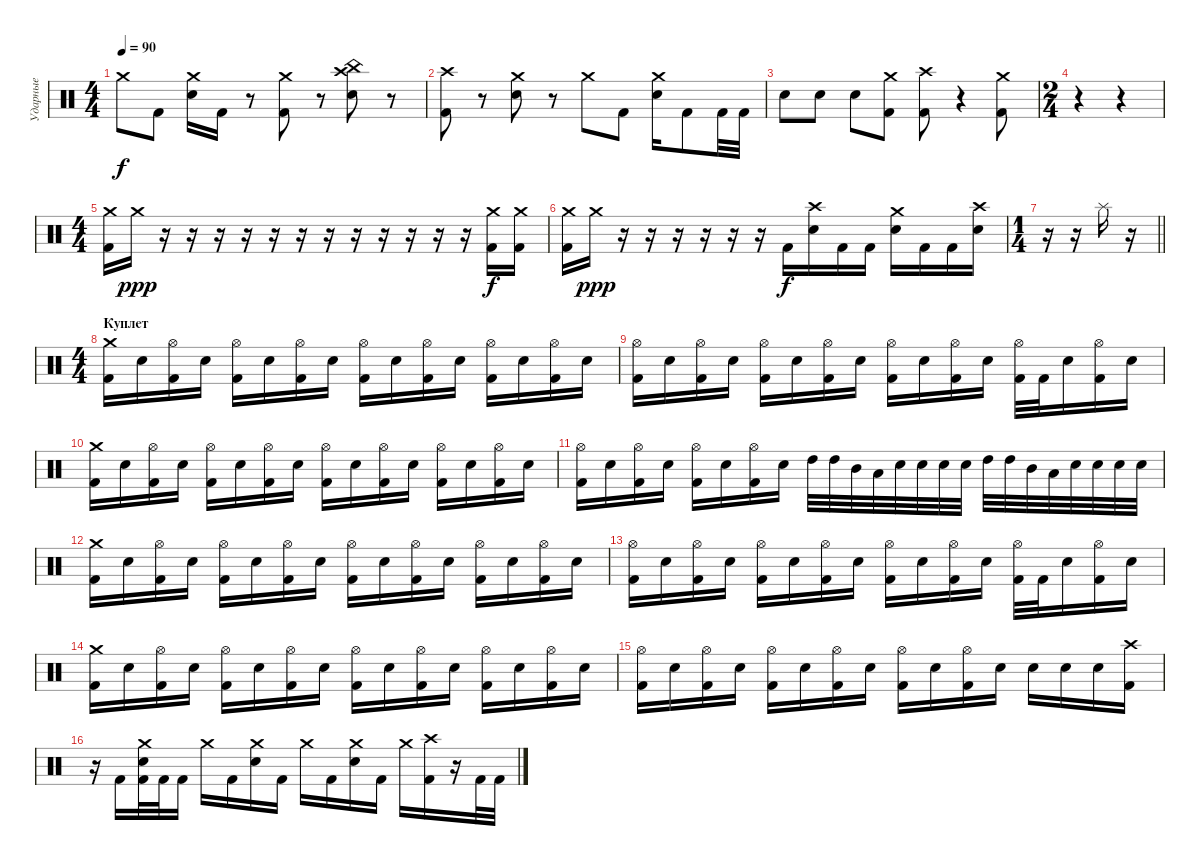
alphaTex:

\track ("Ударные" "Ударные") {instrument percussion}
\staff {score}
\articulation defaults
\ts (4 4)
\tempo 90
\clef neutral
\ks c "Crash medium (hit)".8{dy f} "Kick (hit) 2".8
("Crash medium (hit)" "Electric Snare (hit)").16 "Kick (hit) 2".16 r.8 ("Crash medium (hit)" "Kick (hit) 2").8 r.8 ("China (hit)" "Crash high (hit)" "Electric Snare (hit)").8 r.8 |
("Crash high (hit)" "Kick (hit) 2").8 r.8 ("Crash medium (hit)" "Electric Snare (hit)").8 r.8 "Crash medium (hit)".8 "Kick (hit) 2".8 ("Crash medium (hit)" "Electric Snare (hit)").16 "Kick (hit) 2".8 "Kick (hit) 2".32 "Kick (hit) 2".32 |
"Electric Snare (hit)".8 "Electric Snare (hit)".8 "Electric Snare (hit)".8 ("Crash medium (hit)" "Kick (hit) 2").8 ("Crash high (hit)" "Kick (hit) 2").8 r.4 ("Crash medium (hit)" "Kick (hit) 2").8 |
\ts (2 4)
r.4 r.4 |
\ts (4 4)
("Crash medium (hit)" "Kick (hit) 2").16 "Crash medium (hit)".16{dy ppp} r.16 r.16 r.16 r.16 r.16 r.16 r.16 r.16 r.16 r.16 r.16 r.16 ("Crash medium (hit)" "Kick (hit) 2").16{dy f} ("Crash medium (hit)" "Kick (hit) 2").16 |
("Crash medium (hit)" "Kick (hit) 2").16 "Crash medium (hit)".16{dy ppp} r.16 r.16 r.16 r.16 r.16 r.16 "Kick (hit) 2".16{dy f} ("Crash high (hit)" "Electric Snare (hit)").16 "Kick (hit) 2".16 "Kick (hit) 2".16 ("Crash medium (hit)" "Electric Snare (hit)").16 "Kick (hit) 2".16 "Kick (hit) 2".16 ("Crash high (hit)" "Electric Snare (hit)").16 |
\ts (1 4)
\barLineRight lightlight
r.16 r.16 "Splash (hit)".16 r.16 |
\ts (4 4)
\section ("" "Куплет")
("Crash medium (hit)" "Kick (hit) 2").16 "Electric Snare (hit)".16 ("Hi-Hat (open)" "Kick (hit) 2").16 "Electric Snare (hit)".16 ("Hi-Hat (open)" "Kick (hit) 2").16 "Electric Snare (hit)".16 ("Hi-Hat (open)" "Kick (hit) 2").16 "Electric Snare (hit)".16 ("Hi-Hat (open)" "Kick (hit) 2").16 "Electric Snare (hit)".16 ("Hi-Hat (open)" "Kick (hit) 2").16 "Electric Snare (hit)".16 ("Hi-Hat (open)" "Kick (hit) 2").16 "Electric Snare (hit)".16 ("Hi-Hat (open)" "Kick (hit) 2").16 "Electric Snare (hit)".16 |
("Hi-Hat (open)" "Kick (hit) 2").16 "Electric Snare (hit)".16 ("Hi-Hat (open)" "Kick (hit) 2").16 "Electric Snare (hit)".16 ("Hi-Hat (open)" "Kick (hit) 2").16 "Electric Snare (hit)".16 ("Hi-Hat (open)" "Kick (hit) 2").16 "Electric Snare (hit)".16 ("Hi-Hat (open)" "Kick (hit) 2").16 "Electric Snare (hit)".16 ("Hi-Hat (open)" "Kick (hit) 2").16 "Electric Snare (hit)".16 ("Hi-Hat (open)" "Kick (hit) 2").32 "Kick (hit) 2".32 "Electric Snare (hit)".16 ("Hi-Hat (open)" "Kick (hit) 2").16 "Electric Snare (hit)".16 |
("Crash medium (hit)" "Kick (hit) 2").16 "Electric Snare (hit)".16 ("Hi-Hat (open)" "Kick (hit) 2").16 "Electric Snare (hit)".16 ("Hi-Hat (open)" "Kick (hit) 2").16 "Electric Snare (hit)".16 ("Hi-Hat (open)" "Kick (hit) 2").16 "Electric Snare (hit)".16 ("Hi-Hat (open)" "Kick (hit) 2").16 "Electric Snare (hit)".16 ("Hi-Hat (open)" "Kick (hit) 2").16 "Electric Snare (hit)".16 ("Hi-Hat (open)" "Kick (hit) 2").16 "Electric Snare (hit)".16 ("Hi-Hat (open)" "Kick (hit) 2").16 "Electric Snare (hit)".16 |
("Hi-Hat (open)" "Kick (hit) 2").16 "Electric Snare (hit)".16 ("Hi-Hat (open)" "Kick (hit) 2").16 "Electric Snare (hit)".16 ("Hi-Hat (open)" "Kick (hit) 2").16 "Electric Snare (hit)".16 ("Hi-Hat (open)" "Kick (hit) 2").16 "Electric Snare (hit)".16 "High Tom (hit)".32 "High Tom (hit)".32 "Mid Tom (hit)".32 "Low Tom (hit)".32 "Electric Snare (hit)".32 "Electric Snare (hit)".32 "Electric Snare (hit)".32 "Electric Snare (hit)".32 "High Tom (hit)".32 "High Tom (hit)".32 "Mid Tom (hit)".32 "Low Tom (hit)".32 "Electric Snare (hit)".32 "Electric Snare (hit)".32 "Electric Snare (hit)".32 "Electric Snare (hit)".32 |
("Crash medium (hit)" "Kick (hit) 2").16 "Electric Snare (hit)".16 ("Hi-Hat (open)" "Kick (hit) 2").16 "Electric Snare (hit)".16 ("Hi-Hat (open)" "Kick (hit) 2").16 "Electric Snare (hit)".16 ("Hi-Hat (open)" "Kick (hit) 2").16 "Electric Snare (hit)".16 ("Hi-Hat (open)" "Kick (hit) 2").16 "Electric Snare (hit)".16 ("Hi-Hat (open)" "Kick (hit) 2").16 "Electric Snare (hit)".16 ("Hi-Hat (open)" "Kick (hit) 2").16 "Electric Snare (hit)".16 ("Hi-Hat (open)" "Kick (hit) 2").16 "Electric Snare (hit)".16 |
("Hi-Hat (open)" "Kick (hit) 2").16 "Electric Snare (hit)".16 ("Hi-Hat (open)" "Kick (hit) 2").16 "Electric Snare (hit)".16 ("Hi-Hat (open)" "Kick (hit) 2").16 "Electric Snare (hit)".16 ("Hi-Hat (open)" "Kick (hit) 2").16 "Electric Snare (hit)".16 ("Hi-Hat (open)" "Kick (hit) 2").16 "Electric Snare (hit)".16 ("Hi-Hat (open)" "Kick (hit) 2").16 "Electric Snare (hit)".16 ("Hi-Hat (open)" "Kick (hit) 2").32 "Kick (hit) 2".32 "Electric Snare (hit)".16 ("Hi-Hat (open)" "Kick (hit) 2").16 "Electric Snare (hit)".16 |
("Crash medium (hit)" "Kick (hit) 2").16 "Electric Snare (hit)".16 ("Hi-Hat (open)" "Kick (hit) 2").16 "Electric Snare (hit)".16 ("Hi-Hat (open)" "Kick (hit) 2").16 "Electric Snare (hit)".16 ("Hi-Hat (open)" "Kick (hit) 2").16 "Electric Snare (hit)".16 ("Hi-Hat (open)" "Kick (hit) 2").16 "Electric Snare (hit)".16 ("Hi-Hat (open)" "Kick (hit) 2").16 "Electric Snare (hit)".16 ("Hi-Hat (open)" "Kick (hit) 2").16 "Electric Snare (hit)".16 ("Hi-Hat (open)" "Kick (hit) 2").16 "Electric Snare (hit)".16 |
("Hi-Hat (open)" "Kick (hit) 2").16 "Electric Snare (hit)".16 ("Hi-Hat (open)" "Kick (hit) 2").16 "Electric Snare (hit)".16 ("Hi-Hat (open)" "Kick (hit) 2").16 "Electric Snare (hit)".16 ("Hi-Hat (open)" "Kick (hit) 2").16 "Electric Snare (hit)".16 ("Hi-Hat (open)" "Kick (hit) 2").16 "Electric Snare (hit)".16 ("Hi-Hat (open)" "Kick (hit) 2").16 "Electric Snare (hit)".16 "Electric Snare (hit)".16 "Electric Snare (hit)".16 "Electric Snare (hit)".16 ("Crash high (hit)" "Kick (hit) 2").16 |
r.16 "Kick (hit) 2".16 ("Crash medium (hit)" "Electric Snare (hit)" "Kick (hit) 2").32 "Kick (hit) 2".32 "Kick (hit) 2".16 "Crash medium (hit)".16 "Kick (hit) 2".16 ("Crash medium (hit)" "Electric Snare (hit)").16 "Kick (hit) 2".16 "Crash medium (hit)".16 "Kick (hit) 2".16 ("Crash medium (hit)" "Electric Snare (hit)").16 "Kick (hit) 2".16 "Crash medium (hit)".16 ("Crash high (hit)" "Kick (hit) 2").16 r.16 "Kick (hit) 2".32 "Kick (hit) 2".32
